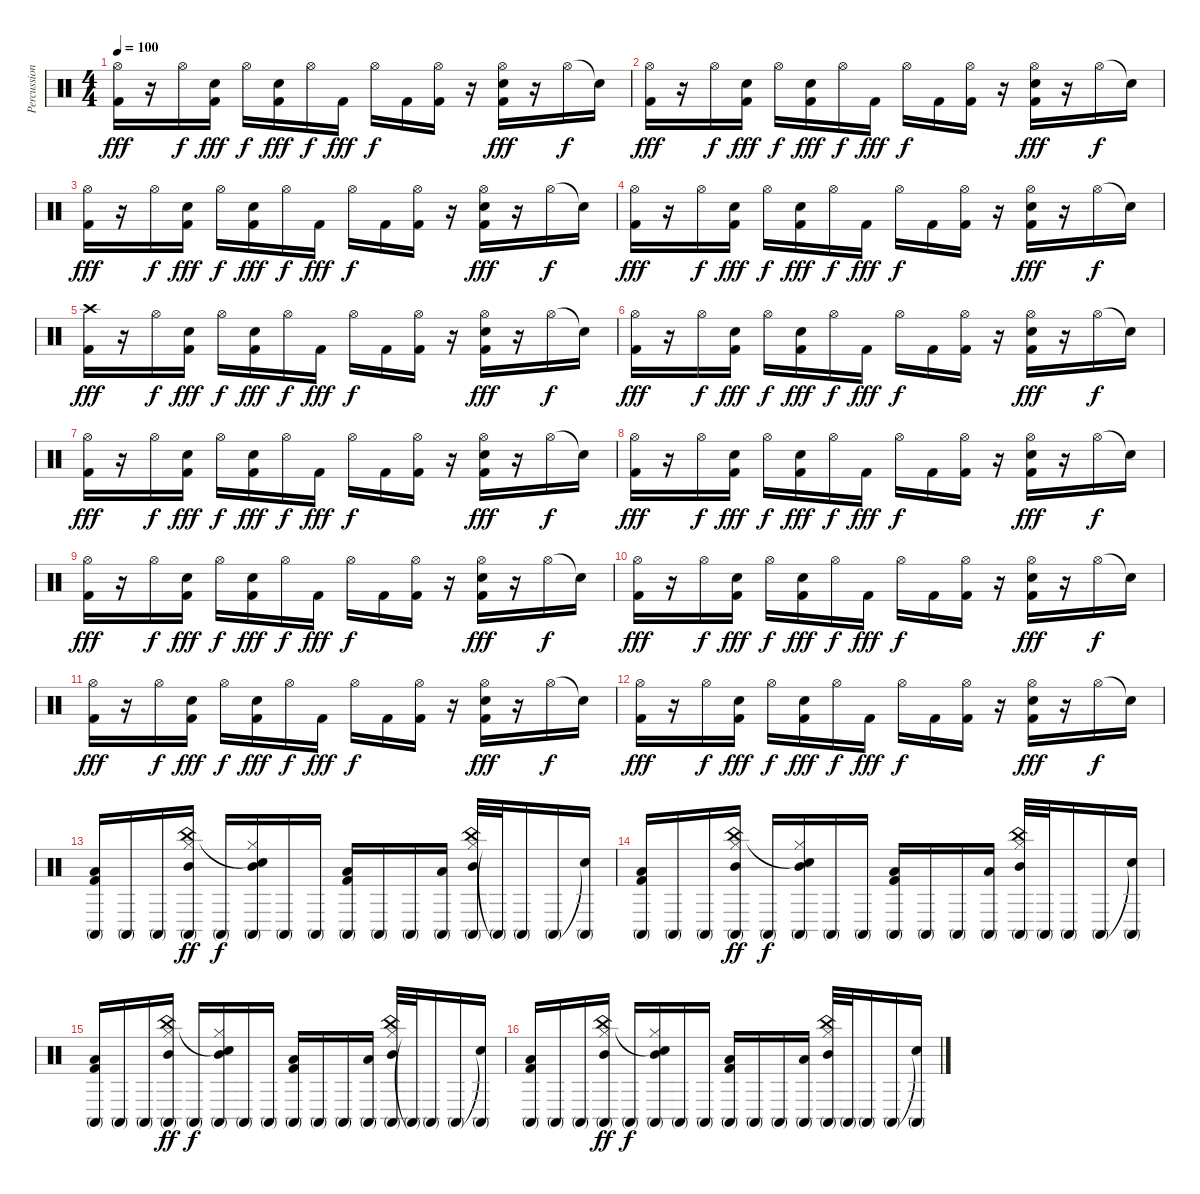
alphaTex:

\track ("Percussion" "Percussion") {instrument percussion}
\staff {score}
\articulation defaults
\ts (4 4)
\tempo 100
\clef neutral
\ks c
("Hi-Hat (open)" "Kick (hit) 2").16{dy fff} r.16 "Hi-Hat (open)".16{dy f} ("Snare (hit) 2" "Kick (hit) 2").16{dy fff} "Hi-Hat (open)".16{dy f} ("Snare (hit) 2" "Kick (hit) 2").16{dy fff} "Hi-Hat (open)".16{dy f} "Kick (hit) 2".16{dy fff} "Hi-Hat (open)".16{dy f} "Kick (hit) 2".16 ("Hi-Hat (open)" "Kick (hit) 2").16 r.16 ("Hi-Hat (open)" "Snare (hit) 2" "Kick (hit) 2").16{dy fff} r.16 "Hi-Hat (open)".16{dy f} "Snare (hit)"{t}.16 |
("Hi-Hat (open)" "Kick (hit) 2").16{dy fff} r.16 "Hi-Hat (open)".16{dy f} ("Snare (hit) 2" "Kick (hit) 2").16{dy fff} "Hi-Hat (open)".16{dy f} ("Snare (hit) 2" "Kick (hit) 2").16{dy fff} "Hi-Hat (open)".16{dy f} "Kick (hit) 2".16{dy fff} "Hi-Hat (open)".16{dy f} "Kick (hit) 2".16 ("Hi-Hat (open)" "Kick (hit) 2").16 r.16 ("Hi-Hat (open)" "Snare (hit) 2" "Kick (hit) 2").16{dy fff} r.16 "Hi-Hat (open)".16{dy f} "Snare (hit)"{t}.16 |
("Hi-Hat (open)" "Kick (hit) 2").16{dy fff} r.16 "Hi-Hat (open)".16{dy f} ("Snare (hit) 2" "Kick (hit) 2").16{dy fff} "Hi-Hat (open)".16{dy f} ("Snare (hit) 2" "Kick (hit) 2").16{dy fff} "Hi-Hat (open)".16{dy f} "Kick (hit) 2".16{dy fff} "Hi-Hat (open)".16{dy f} "Kick (hit) 2".16 ("Hi-Hat (open)" "Kick (hit) 2").16 r.16 ("Hi-Hat (open)" "Snare (hit) 2" "Kick (hit) 2").16{dy fff} r.16 "Hi-Hat (open)".16{dy f} "Snare (hit)"{t}.16 |
("Hi-Hat (open)" "Kick (hit) 2").16{dy fff} r.16 "Hi-Hat (open)".16{dy f} ("Snare (hit) 2" "Kick (hit) 2").16{dy fff} "Hi-Hat (open)".16{dy f} ("Snare (hit) 2" "Kick (hit) 2").16{dy fff} "Hi-Hat (open)".16{dy f} "Kick (hit) 2".16{dy fff} "Hi-Hat (open)".16{dy f} "Kick (hit) 2".16 ("Hi-Hat (open)" "Kick (hit) 2").16 r.16 ("Hi-Hat (open)" "Snare (hit) 2" "Kick (hit) 2").16{dy fff} r.16 "Hi-Hat (open)".16{dy f} "Snare (hit)"{t}.16 |
("Crash high (hit)" "Kick (hit) 2").16{dy fff volume 16} r.16 "Hi-Hat (open)".16{dy f} ("Snare (hit) 2" "Kick (hit) 2").16{dy fff} "Hi-Hat (open)".16{dy f} ("Snare (hit) 2" "Kick (hit) 2").16{dy fff} "Hi-Hat (open)".16{dy f} "Kick (hit) 2".16{dy fff} "Hi-Hat (open)".16{dy f} "Kick (hit) 2".16 ("Hi-Hat (open)" "Kick (hit) 2").16 r.16 ("Hi-Hat (open)" "Snare (hit) 2" "Kick (hit) 2").16{dy fff} r.16 "Hi-Hat (open)".16{dy f} "Snare (hit)"{t}.16 |
("Hi-Hat (open)" "Kick (hit) 2").16{dy fff} r.16 "Hi-Hat (open)".16{dy f} ("Snare (hit) 2" "Kick (hit) 2").16{dy fff} "Hi-Hat (open)".16{dy f} ("Snare (hit) 2" "Kick (hit) 2").16{dy fff} "Hi-Hat (open)".16{dy f} "Kick (hit) 2".16{dy fff} "Hi-Hat (open)".16{dy f} "Kick (hit) 2".16 ("Hi-Hat (open)" "Kick (hit) 2").16 r.16 ("Hi-Hat (open)" "Snare (hit) 2" "Kick (hit) 2").16{dy fff} r.16 "Hi-Hat (open)".16{dy f} "Snare (hit)"{t}.16 |
("Hi-Hat (open)" "Kick (hit) 2").16{dy fff} r.16 "Hi-Hat (open)".16{dy f} ("Snare (hit) 2" "Kick (hit) 2").16{dy fff} "Hi-Hat (open)".16{dy f} ("Snare (hit) 2" "Kick (hit) 2").16{dy fff} "Hi-Hat (open)".16{dy f} "Kick (hit) 2".16{dy fff} "Hi-Hat (open)".16{dy f} "Kick (hit) 2".16 ("Hi-Hat (open)" "Kick (hit) 2").16 r.16 ("Hi-Hat (open)" "Snare (hit) 2" "Kick (hit) 2").16{dy fff} r.16 "Hi-Hat (open)".16{dy f} "Snare (hit)"{t}.16 |
("Hi-Hat (open)" "Kick (hit) 2").16{dy fff} r.16 "Hi-Hat (open)".16{dy f} ("Snare (hit) 2" "Kick (hit) 2").16{dy fff} "Hi-Hat (open)".16{dy f} ("Snare (hit) 2" "Kick (hit) 2").16{dy fff} "Hi-Hat (open)".16{dy f} "Kick (hit) 2".16{dy fff} "Hi-Hat (open)".16{dy f} "Kick (hit) 2".16 ("Hi-Hat (open)" "Kick (hit) 2").16 r.16 ("Hi-Hat (open)" "Snare (hit) 2" "Kick (hit) 2").16{dy fff} r.16 "Hi-Hat (open)".16{dy f} "Snare (hit)"{t}.16 |
("Hi-Hat (open)" "Kick (hit) 2").16{dy fff} r.16 "Hi-Hat (open)".16{dy f} ("Snare (hit) 2" "Kick (hit) 2").16{dy fff} "Hi-Hat (open)".16{dy f} ("Snare (hit) 2" "Kick (hit) 2").16{dy fff} "Hi-Hat (open)".16{dy f} "Kick (hit) 2".16{dy fff} "Hi-Hat (open)".16{dy f} "Kick (hit) 2".16 ("Hi-Hat (open)" "Kick (hit) 2").16 r.16 ("Hi-Hat (open)" "Snare (hit) 2" "Kick (hit) 2").16{dy fff} r.16 "Hi-Hat (open)".16{dy f} "Snare (hit)"{t}.16 |
("Hi-Hat (open)" "Kick (hit) 2").16{dy fff} r.16 "Hi-Hat (open)".16{dy f} ("Snare (hit) 2" "Kick (hit) 2").16{dy fff} "Hi-Hat (open)".16{dy f} ("Snare (hit) 2" "Kick (hit) 2").16{dy fff} "Hi-Hat (open)".16{dy f} "Kick (hit) 2".16{dy fff} "Hi-Hat (open)".16{dy f} "Kick (hit) 2".16 ("Hi-Hat (open)" "Kick (hit) 2").16 r.16 ("Hi-Hat (open)" "Snare (hit) 2" "Kick (hit) 2").16{dy fff} r.16 "Hi-Hat (open)".16{dy f} "Snare (hit)"{t}.16 |
("Hi-Hat (open)" "Kick (hit) 2").16{dy fff} r.16 "Hi-Hat (open)".16{dy f} ("Snare (hit) 2" "Kick (hit) 2").16{dy fff} "Hi-Hat (open)".16{dy f} ("Snare (hit) 2" "Kick (hit) 2").16{dy fff} "Hi-Hat (open)".16{dy f} "Kick (hit) 2".16{dy fff} "Hi-Hat (open)".16{dy f} "Kick (hit) 2".16 ("Hi-Hat (open)" "Kick (hit) 2").16 r.16 ("Hi-Hat (open)" "Snare (hit) 2" "Kick (hit) 2").16{dy fff} r.16 "Hi-Hat (open)".16{dy f} "Snare (hit)"{t}.16 |
("Hi-Hat (open)" "Kick (hit) 2").16{dy fff} r.16 "Hi-Hat (open)".16{dy f} ("Snare (hit) 2" "Kick (hit) 2").16{dy fff} "Hi-Hat (open)".16{dy f} ("Snare (hit) 2" "Kick (hit) 2").16{dy fff} "Hi-Hat (open)".16{dy f} "Kick (hit) 2".16{dy fff} "Hi-Hat (open)".16{dy f} "Kick (hit) 2".16 ("Hi-Hat (open)" "Kick (hit) 2").16 r.16 ("Hi-Hat (open)" "Snare (hit) 2" "Kick (hit) 2").16{dy fff} r.16 "Hi-Hat (open)".16{dy f} "Snare (hit)"{t}.16 |
("Kick (hit) 2" "Low Tom (hit)" "Conga high (mute)").16{volume 12} "Conga high (mute)".16 "Conga high (mute)".16 ("Hi-Hat (closed)" "China (hit)" "Mid Tom (hit)" "Conga high (mute)").16{dy ff} "Conga high (mute)".16{dy f} ("Hi-Hat (closed)" "Snare (hit)"{t} "Mid Tom (hit)" "Conga high (mute)").16 "Conga high (mute)".16 "Conga high (mute)".16 ("Kick (hit) 2" "Low Tom (hit)" "Conga high (mute)").16 "Conga high (mute)".16 "Conga high (mute)".16 ("Low Tom (hit)" "Conga high (mute)").16 ("Hi-Hat (closed)" "China (hit)" "Mid Tom (hit)" "Conga high (mute)").32 "Conga high (mute)"{t}.32 "Conga high (mute)".16 "Conga high (mute)".16 ("Snare (hit)"{t} "Conga high (mute)").16 |
("Kick (hit) 2" "Low Tom (hit)" "Conga high (mute)").16{volume 12} "Conga high (mute)".16 "Conga high (mute)".16 ("Hi-Hat (closed)" "China (hit)" "Mid Tom (hit)" "Conga high (mute)").16{dy ff} "Conga high (mute)".16{dy f} ("Hi-Hat (closed)" "Snare (hit)"{t} "Mid Tom (hit)" "Conga high (mute)").16 "Conga high (mute)".16 "Conga high (mute)".16 ("Kick (hit) 2" "Low Tom (hit)" "Conga high (mute)").16 "Conga high (mute)".16 "Conga high (mute)".16 ("Low Tom (hit)" "Conga high (mute)").16 ("Hi-Hat (closed)" "China (hit)" "Mid Tom (hit)" "Conga high (mute)").32 "Conga high (mute)".32 "Conga high (mute)".16 "Conga high (mute)".16 ("Snare (hit)"{t} "Conga high (mute)").16 |
("Kick (hit) 2" "Low Tom (hit)" "Conga high (mute)").16{volume 12} "Conga high (mute)".16 "Conga high (mute)".16 ("Hi-Hat (closed)" "China (hit)" "Mid Tom (hit)" "Conga high (mute)").16{dy ff} "Conga high (mute)".16{dy f} ("Hi-Hat (closed)" "Snare (hit)"{t} "Mid Tom (hit)" "Conga high (mute)").16 "Conga high (mute)".16 "Conga high (mute)".16 ("Kick (hit) 2" "Low Tom (hit)" "Conga high (mute)").16 "Conga high (mute)".16 "Conga high (mute)".16 ("Low Tom (hit)" "Conga high (mute)").16 ("Hi-Hat (closed)" "China (hit)" "Mid Tom (hit)" "Conga high (mute)").32 "Conga high (mute)"{t}.32 "Conga high (mute)".16 "Conga high (mute)".16 ("Snare (hit)"{t} "Conga high (mute)").16 |
("Kick (hit) 2" "Low Tom (hit)" "Conga high (mute)").16{volume 12} "Conga high (mute)".16 "Conga high (mute)".16 ("Hi-Hat (closed)" "China (hit)" "Mid Tom (hit)" "Conga high (mute)").16{dy ff} "Conga high (mute)".16{dy f} ("Hi-Hat (closed)" "Snare (hit)"{t} "Mid Tom (hit)" "Conga high (mute)").16 "Conga high (mute)".16 "Conga high (mute)".16 ("Kick (hit) 2" "Low Tom (hit)" "Conga high (mute)").16 "Conga high (mute)".16 "Conga high (mute)".16 ("Low Tom (hit)" "Conga high (mute)").16 ("Hi-Hat (closed)" "China (hit)" "Mid Tom (hit)" "Conga high (mute)").32 "Conga high (mute)".32 "Conga high (mute)".16 "Conga high (mute)".16 ("Snare (hit)"{t} "Conga high (mute)").16
